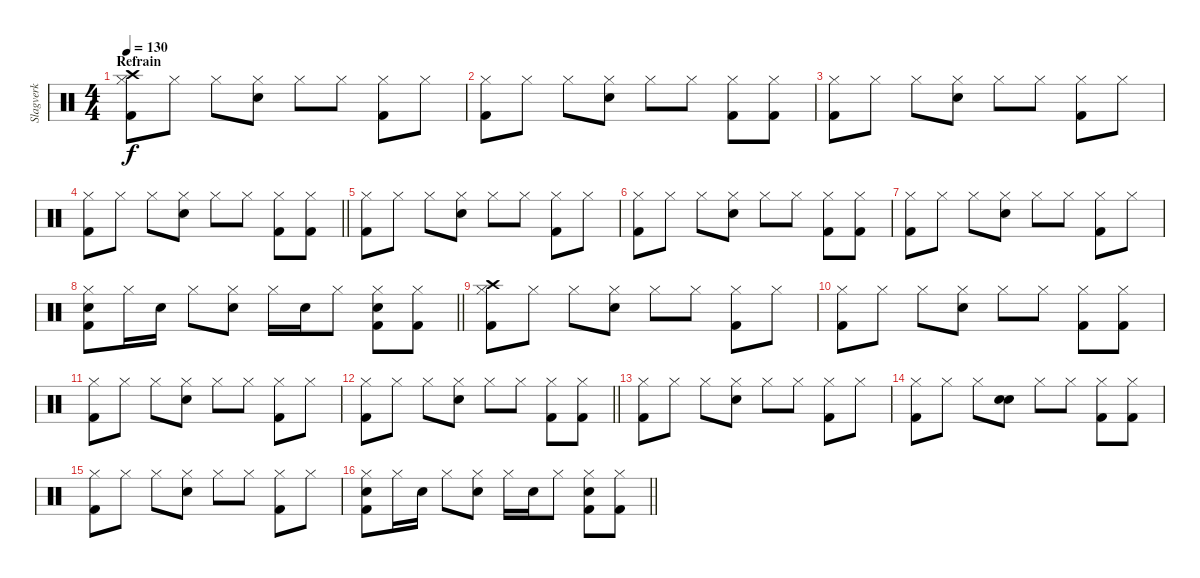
\track ("Slagverk" "Slagverk") {instrument percussion}
\staff {score}
\articulation defaults
\ts (4 4)
\section ("" "Refrain")
\tempo 130
\clef neutral
\ks c
("Hi-Hat (closed)" "Kick (hit) 2" "Crash high (hit)").8{dy f} "Hi-Hat (closed)".8 "Hi-Hat (closed)".8 ("Hi-Hat (closed)" "Snare (hit) 2").8 "Hi-Hat (closed)".8 "Hi-Hat (closed)".8 ("Hi-Hat (closed)" "Kick (hit) 2").8 "Hi-Hat (closed)".8 |
("Hi-Hat (closed)" "Kick (hit) 2").8 "Hi-Hat (closed)".8 "Hi-Hat (closed)".8 ("Hi-Hat (closed)" "Snare (hit) 2").8 "Hi-Hat (closed)".8 "Hi-Hat (closed)".8 ("Hi-Hat (closed)" "Kick (hit) 2").8 ("Hi-Hat (closed)" "Kick (hit) 2").8 |
("Hi-Hat (closed)" "Kick (hit) 2").8 "Hi-Hat (closed)".8 "Hi-Hat (closed)".8 ("Hi-Hat (closed)" "Snare (hit) 2").8 "Hi-Hat (closed)".8 "Hi-Hat (closed)".8 ("Hi-Hat (closed)" "Kick (hit) 2").8 "Hi-Hat (closed)".8 |
\barLineRight lightlight
("Hi-Hat (closed)" "Kick (hit) 2").8 "Hi-Hat (closed)".8 "Hi-Hat (closed)".8 ("Hi-Hat (closed)" "Snare (hit) 2").8 "Hi-Hat (closed)".8 "Hi-Hat (closed)".8 ("Hi-Hat (closed)" "Kick (hit) 2").8 ("Hi-Hat (closed)" "Kick (hit) 2").8 |
("Hi-Hat (closed)" "Kick (hit) 2").8 "Hi-Hat (closed)".8 "Hi-Hat (closed)".8 ("Hi-Hat (closed)" "Snare (hit) 2").8 "Hi-Hat (closed)".8 "Hi-Hat (closed)".8 ("Hi-Hat (closed)" "Kick (hit) 2").8 "Hi-Hat (closed)".8 |
("Hi-Hat (closed)" "Kick (hit) 2").8 "Hi-Hat (closed)".8 "Hi-Hat (closed)".8 ("Hi-Hat (closed)" "Snare (hit) 2").8 "Hi-Hat (closed)".8 "Hi-Hat (closed)".8 ("Hi-Hat (closed)" "Kick (hit) 2").8 ("Hi-Hat (closed)" "Kick (hit) 2").8 |
("Hi-Hat (closed)" "Kick (hit) 2").8 "Hi-Hat (closed)".8 "Hi-Hat (closed)".8 ("Hi-Hat (closed)" "Snare (hit) 2").8 "Hi-Hat (closed)".8 "Hi-Hat (closed)".8 ("Hi-Hat (closed)" "Kick (hit) 2").8 "Hi-Hat (closed)".8 |
\barLineRight lightlight
("Hi-Hat (closed)" "Snare (hit) 2" "Kick (hit) 2").8 "Hi-Hat (closed)".16 "Snare (hit) 2".16 "Hi-Hat (closed)".8 ("Hi-Hat (closed)" "Snare (hit) 2").8 "Hi-Hat (closed)".16 "Snare (hit) 2".16 "Hi-Hat (closed)".8 ("Hi-Hat (closed)" "Snare (hit) 2" "Kick (hit) 2").8 ("Hi-Hat (closed)" "Kick (hit) 2").8 |
("Hi-Hat (closed)" "Kick (hit) 2" "Crash high (hit)").8 "Hi-Hat (closed)".8 "Hi-Hat (closed)".8 ("Hi-Hat (closed)" "Snare (hit) 2").8 "Hi-Hat (closed)".8 "Hi-Hat (closed)".8 ("Hi-Hat (closed)" "Kick (hit) 2").8 "Hi-Hat (closed)".8 |
("Hi-Hat (closed)" "Kick (hit) 2").8 "Hi-Hat (closed)".8 "Hi-Hat (closed)".8 ("Hi-Hat (closed)" "Snare (hit) 2").8 "Hi-Hat (closed)".8 "Hi-Hat (closed)".8 ("Hi-Hat (closed)" "Kick (hit) 2").8 ("Hi-Hat (closed)" "Kick (hit) 2").8 |
("Hi-Hat (closed)" "Kick (hit) 2").8 "Hi-Hat (closed)".8 "Hi-Hat (closed)".8 ("Hi-Hat (closed)" "Snare (hit) 2").8 "Hi-Hat (closed)".8 "Hi-Hat (closed)".8 ("Hi-Hat (closed)" "Kick (hit) 2").8 "Hi-Hat (closed)".8 |
\barLineRight lightlight
("Hi-Hat (closed)" "Kick (hit) 2").8 "Hi-Hat (closed)".8 "Hi-Hat (closed)".8 ("Hi-Hat (closed)" "Snare (hit) 2").8 "Hi-Hat (closed)".8 "Hi-Hat (closed)".8 ("Hi-Hat (closed)" "Kick (hit) 2").8 ("Hi-Hat (closed)" "Kick (hit) 2").8 |
("Hi-Hat (closed)" "Kick (hit) 2").8 "Hi-Hat (closed)".8 "Hi-Hat (closed)".8 ("Hi-Hat (closed)" "Snare (hit) 2").8 "Hi-Hat (closed)".8 "Hi-Hat (closed)".8 ("Hi-Hat (closed)" "Kick (hit) 2").8 "Hi-Hat (closed)".8 |
("Hi-Hat (closed)" "Kick (hit) 2").8 "Hi-Hat (closed)".8 "Hi-Hat (closed)".8 ("Snare (hit)" "Snare (hit) 2").8 "Hi-Hat (closed)".8 "Hi-Hat (closed)".8 ("Hi-Hat (closed)" "Kick (hit) 2").8 ("Hi-Hat (closed)" "Kick (hit) 2").8 |
("Hi-Hat (closed)" "Kick (hit) 2").8 "Hi-Hat (closed)".8 "Hi-Hat (closed)".8 ("Hi-Hat (closed)" "Snare (hit) 2").8 "Hi-Hat (closed)".8 "Hi-Hat (closed)".8 ("Hi-Hat (closed)" "Kick (hit) 2").8 "Hi-Hat (closed)".8 |
\barLineRight lightlight
("Hi-Hat (closed)" "Snare (hit) 2" "Kick (hit) 2").8 "Hi-Hat (closed)".16 "Snare (hit) 2".16 "Hi-Hat (closed)".8 ("Hi-Hat (closed)" "Snare (hit) 2").8 "Hi-Hat (closed)".16 "Snare (hit) 2".16 "Hi-Hat (closed)".8 ("Hi-Hat (closed)" "Snare (hit) 2" "Kick (hit) 2").8 ("Hi-Hat (closed)" "Kick (hit) 2").8
